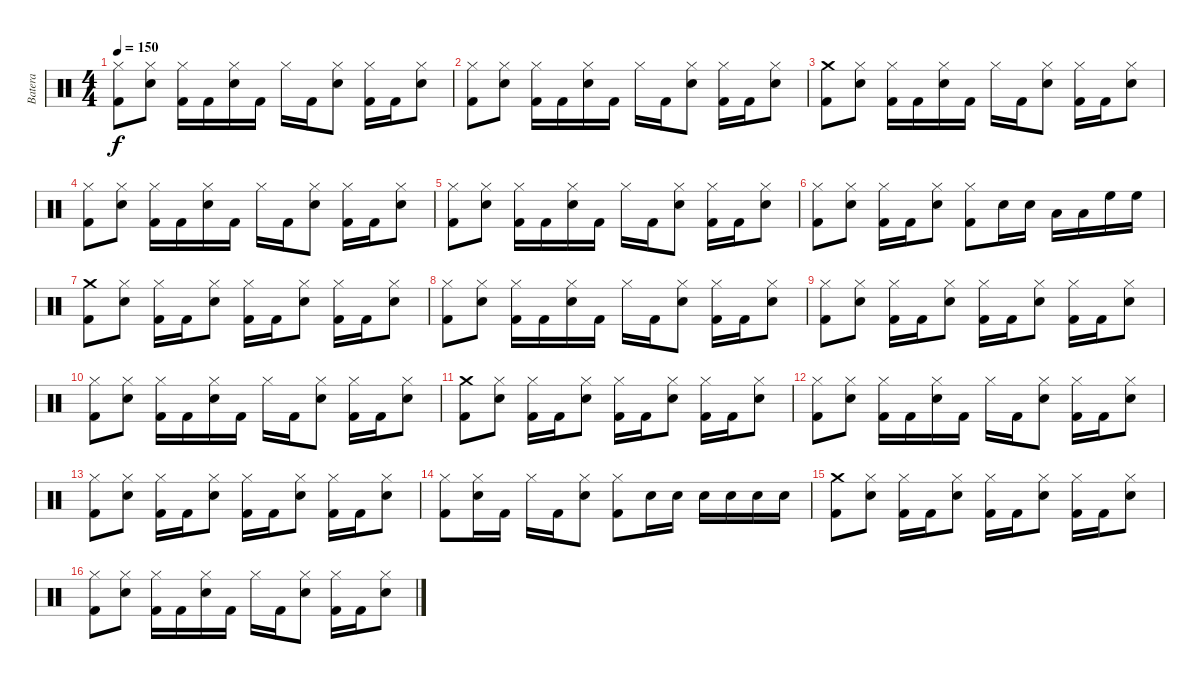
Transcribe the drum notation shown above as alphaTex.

\track ("Batera" "Batera") {instrument percussion}
\staff {score}
\articulation defaults
\ts (4 4)
\tempo 150
\clef neutral
\ks c
("Kick (hit) 2" "Hi-Hat (closed)").8{dy f} ("Snare (hit) 2" "Hi-Hat (closed)").8 ("Kick (hit) 2" "Hi-Hat (closed)").16 "Kick (hit) 2".16 ("Snare (hit) 2" "Hi-Hat (closed)").16 "Kick (hit) 2".16 "Hi-Hat (closed)".16 "Kick (hit) 2".16 ("Snare (hit) 2" "Hi-Hat (closed)").8 ("Kick (hit) 2" "Hi-Hat (closed)").16 "Kick (hit) 2".16 ("Snare (hit) 2" "Hi-Hat (closed)").8 |
("Kick (hit) 2" "Hi-Hat (closed)").8 ("Snare (hit) 2" "Hi-Hat (closed)").8 ("Kick (hit) 2" "Hi-Hat (closed)").16 "Kick (hit) 2".16 ("Snare (hit) 2" "Hi-Hat (closed)").16 "Kick (hit) 2".16 "Hi-Hat (closed)".16 "Kick (hit) 2".16 ("Snare (hit) 2" "Hi-Hat (closed)").8 ("Kick (hit) 2" "Hi-Hat (closed)").16 "Kick (hit) 2".16 ("Snare (hit) 2" "Hi-Hat (closed)").8 |
("Kick (hit) 2" "Crash medium (hit)").8 ("Snare (hit) 2" "Hi-Hat (closed)").8 ("Kick (hit) 2" "Hi-Hat (closed)").16 "Kick (hit) 2".16 ("Snare (hit) 2" "Hi-Hat (closed)").16 "Kick (hit) 2".16 "Hi-Hat (closed)".16 "Kick (hit) 2".16 ("Snare (hit) 2" "Hi-Hat (closed)").8 ("Kick (hit) 2" "Hi-Hat (closed)").16 "Kick (hit) 2".16 ("Snare (hit) 2" "Hi-Hat (closed)").8 |
("Kick (hit) 2" "Hi-Hat (closed)").8 ("Snare (hit) 2" "Hi-Hat (closed)").8 ("Kick (hit) 2" "Hi-Hat (closed)").16 "Kick (hit) 2".16 ("Snare (hit) 2" "Hi-Hat (closed)").16 "Kick (hit) 2".16 "Hi-Hat (closed)".16 "Kick (hit) 2".16 ("Snare (hit) 2" "Hi-Hat (closed)").8 ("Kick (hit) 2" "Hi-Hat (closed)").16 "Kick (hit) 2".16 ("Snare (hit) 2" "Hi-Hat (closed)").8 |
("Kick (hit) 2" "Hi-Hat (closed)").8 ("Snare (hit) 2" "Hi-Hat (closed)").8 ("Kick (hit) 2" "Hi-Hat (closed)").16 "Kick (hit) 2".16 ("Snare (hit) 2" "Hi-Hat (closed)").16 "Kick (hit) 2".16 "Hi-Hat (closed)".16 "Kick (hit) 2".16 ("Snare (hit) 2" "Hi-Hat (closed)").8 ("Kick (hit) 2" "Hi-Hat (closed)").16 "Kick (hit) 2".16 ("Snare (hit) 2" "Hi-Hat (closed)").8 |
("Kick (hit) 2" "Hi-Hat (closed)").8 ("Snare (hit) 2" "Hi-Hat (closed)").8 ("Kick (hit) 2" "Hi-Hat (closed)").16 "Kick (hit) 2".16 ("Snare (hit) 2" "Hi-Hat (closed)").8 ("Kick (hit) 2" "Hi-Hat (closed)").8 "Snare (hit) 2".16 "Snare (hit) 2".16 "Low Tom (hit)".16 "Low Tom (hit)".16 "High Floor Tom (hit)".16 "High Floor Tom (hit)".16 |
("Kick (hit) 2" "Crash medium (hit)").8 ("Snare (hit) 2" "Hi-Hat (closed)").8 ("Kick (hit) 2" "Hi-Hat (closed)").16 "Kick (hit) 2".16 ("Snare (hit) 2" "Hi-Hat (closed)").8 ("Kick (hit) 2" "Hi-Hat (closed)").16 "Kick (hit) 2".16 ("Snare (hit) 2" "Hi-Hat (closed)").8 ("Kick (hit) 2" "Hi-Hat (closed)").16 "Kick (hit) 2".16 ("Snare (hit) 2" "Hi-Hat (closed)").8 |
("Kick (hit) 2" "Hi-Hat (closed)").8 ("Snare (hit) 2" "Hi-Hat (closed)").8 ("Kick (hit) 2" "Hi-Hat (closed)").16 "Kick (hit) 2".16 ("Snare (hit) 2" "Hi-Hat (closed)").16 "Kick (hit) 2".16 "Hi-Hat (closed)".16 "Kick (hit) 2".16 ("Snare (hit) 2" "Hi-Hat (closed)").8 ("Kick (hit) 2" "Hi-Hat (closed)").16 "Kick (hit) 2".16 ("Snare (hit) 2" "Hi-Hat (closed)").8 |
("Kick (hit) 2" "Hi-Hat (closed)").8 ("Snare (hit) 2" "Hi-Hat (closed)").8 ("Kick (hit) 2" "Hi-Hat (closed)").16 "Kick (hit) 2".16 ("Snare (hit) 2" "Hi-Hat (closed)").8 ("Kick (hit) 2" "Hi-Hat (closed)").16 "Kick (hit) 2".16 ("Snare (hit) 2" "Hi-Hat (closed)").8 ("Kick (hit) 2" "Hi-Hat (closed)").16 "Kick (hit) 2".16 ("Snare (hit) 2" "Hi-Hat (closed)").8 |
("Kick (hit) 2" "Hi-Hat (closed)").8 ("Snare (hit) 2" "Hi-Hat (closed)").8 ("Kick (hit) 2" "Hi-Hat (closed)").16 "Kick (hit) 2".16 ("Snare (hit) 2" "Hi-Hat (closed)").16 "Kick (hit) 2".16 "Hi-Hat (closed)".16 "Kick (hit) 2".16 ("Snare (hit) 2" "Hi-Hat (closed)").8 ("Kick (hit) 2" "Hi-Hat (closed)").16 "Kick (hit) 2".16 ("Snare (hit) 2" "Hi-Hat (closed)").8 |
("Kick (hit) 2" "Crash medium (hit)").8 ("Snare (hit) 2" "Hi-Hat (closed)").8 ("Kick (hit) 2" "Hi-Hat (closed)").16 "Kick (hit) 2".16 ("Snare (hit) 2" "Hi-Hat (closed)").8 ("Kick (hit) 2" "Hi-Hat (closed)").16 "Kick (hit) 2".16 ("Snare (hit) 2" "Hi-Hat (closed)").8 ("Kick (hit) 2" "Hi-Hat (closed)").16 "Kick (hit) 2".16 ("Snare (hit) 2" "Hi-Hat (closed)").8 |
("Kick (hit) 2" "Hi-Hat (closed)").8 ("Snare (hit) 2" "Hi-Hat (closed)").8 ("Kick (hit) 2" "Hi-Hat (closed)").16 "Kick (hit) 2".16 ("Snare (hit) 2" "Hi-Hat (closed)").16 "Kick (hit) 2".16 "Hi-Hat (closed)".16 "Kick (hit) 2".16 ("Snare (hit) 2" "Hi-Hat (closed)").8 ("Kick (hit) 2" "Hi-Hat (closed)").16 "Kick (hit) 2".16 ("Snare (hit) 2" "Hi-Hat (closed)").8 |
("Kick (hit) 2" "Hi-Hat (closed)").8 ("Snare (hit) 2" "Hi-Hat (closed)").8 ("Kick (hit) 2" "Hi-Hat (closed)").16 "Kick (hit) 2".16 ("Snare (hit) 2" "Hi-Hat (closed)").8 ("Kick (hit) 2" "Hi-Hat (closed)").16 "Kick (hit) 2".16 ("Snare (hit) 2" "Hi-Hat (closed)").8 ("Kick (hit) 2" "Hi-Hat (closed)").16 "Kick (hit) 2".16 ("Snare (hit) 2" "Hi-Hat (closed)").8 |
("Kick (hit) 2" "Hi-Hat (closed)").8 ("Snare (hit) 2" "Hi-Hat (closed)").16 "Kick (hit) 2".16 "Hi-Hat (closed)".16 "Kick (hit) 2".16 ("Snare (hit) 2" "Hi-Hat (closed)").8 ("Kick (hit) 2" "Hi-Hat (closed)").8 "Snare (hit) 2".16 "Snare (hit) 2".16 "Snare (hit) 2".16 "Snare (hit) 2".16 "Snare (hit) 2".16 "Snare (hit) 2".16 |
("Kick (hit) 2" "Crash medium (hit)").8 ("Snare (hit) 2" "Hi-Hat (closed)").8 ("Kick (hit) 2" "Hi-Hat (closed)").16 "Kick (hit) 2".16 ("Snare (hit) 2" "Hi-Hat (closed)").8 ("Kick (hit) 2" "Hi-Hat (closed)").16 "Kick (hit) 2".16 ("Snare (hit) 2" "Hi-Hat (closed)").8 ("Kick (hit) 2" "Hi-Hat (closed)").16 "Kick (hit) 2".16 ("Snare (hit) 2" "Hi-Hat (closed)").8 |
("Kick (hit) 2" "Hi-Hat (closed)").8 ("Snare (hit) 2" "Hi-Hat (closed)").8 ("Kick (hit) 2" "Hi-Hat (closed)").16 "Kick (hit) 2".16 ("Snare (hit) 2" "Hi-Hat (closed)").16 "Kick (hit) 2".16 "Hi-Hat (closed)".16 "Kick (hit) 2".16 ("Snare (hit) 2" "Hi-Hat (closed)").8 ("Kick (hit) 2" "Hi-Hat (closed)").16 "Kick (hit) 2".16 ("Snare (hit) 2" "Hi-Hat (closed)").8
